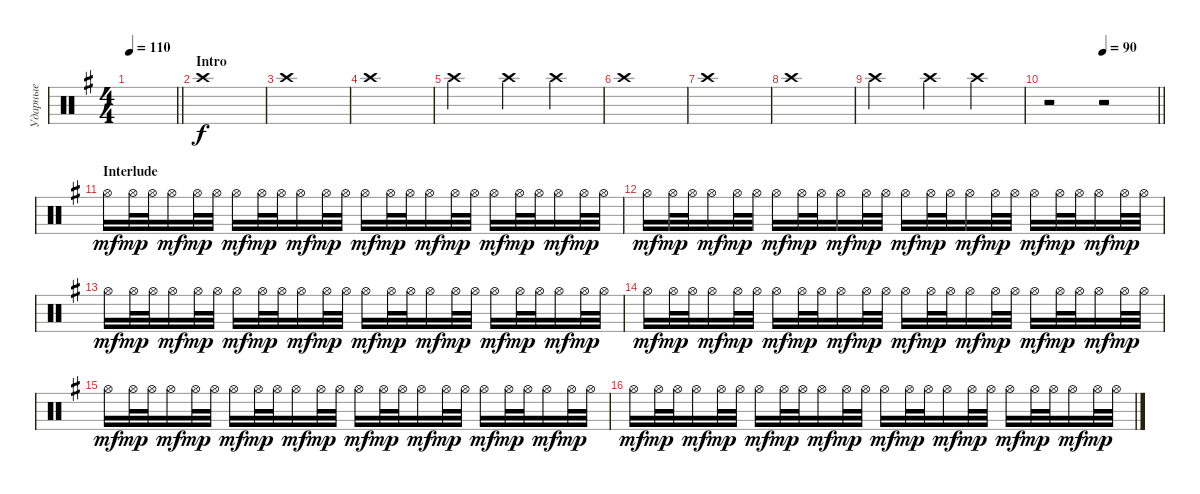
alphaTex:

\track ("Ударные" "Ударные") {instrument percussion}
\staff {score}
\articulation defaults
\ts (4 4)
\tempo 110
\tempo 60
\tempo 110
\clef neutral
\barLineRight lightlight
\ks eminor
|
\section ("" "Intro")
"Crash high (hit)".1 |
"Crash high (hit)".1 |
"Crash high (hit)".1 |
"Crash high (hit)".2 "Crash high (hit)".4 "Crash high (hit)".4 |
"Crash high (hit)".1 |
"Crash high (hit)".1 |
"Crash high (hit)".1 |
"Crash high (hit)".2 "Crash high (hit)".4 "Crash high (hit)".4 |
\tempo (90 0.5)
\barLineRight lightlight
r.2 r.2 |
\section ("" "Interlude")
"Hi-Hat (open)".16{dy mf} "Hi-Hat (open)".32{dy mp} "Hi-Hat (open)".32 "Hi-Hat (open)".16{dy mf} "Hi-Hat (open)".32{dy mp} "Hi-Hat (open)".32 "Hi-Hat (open)".16{dy mf} "Hi-Hat (open)".32{dy mp} "Hi-Hat (open)".32 "Hi-Hat (open)".16{dy mf} "Hi-Hat (open)".32{dy mp} "Hi-Hat (open)".32 "Hi-Hat (open)".16{dy mf} "Hi-Hat (open)".32{dy mp} "Hi-Hat (open)".32 "Hi-Hat (open)".16{dy mf} "Hi-Hat (open)".32{dy mp} "Hi-Hat (open)".32 "Hi-Hat (open)".16{dy mf} "Hi-Hat (open)".32{dy mp} "Hi-Hat (open)".32 "Hi-Hat (open)".16{dy mf} "Hi-Hat (open)".32{dy mp} "Hi-Hat (open)".32 |
"Hi-Hat (open)".16{dy mf} "Hi-Hat (open)".32{dy mp} "Hi-Hat (open)".32 "Hi-Hat (open)".16{dy mf} "Hi-Hat (open)".32{dy mp} "Hi-Hat (open)".32 "Hi-Hat (open)".16{dy mf} "Hi-Hat (open)".32{dy mp} "Hi-Hat (open)".32 "Hi-Hat (open)".16{dy mf} "Hi-Hat (open)".32{dy mp} "Hi-Hat (open)".32 "Hi-Hat (open)".16{dy mf} "Hi-Hat (open)".32{dy mp} "Hi-Hat (open)".32 "Hi-Hat (open)".16{dy mf} "Hi-Hat (open)".32{dy mp} "Hi-Hat (open)".32 "Hi-Hat (open)".16{dy mf} "Hi-Hat (open)".32{dy mp} "Hi-Hat (open)".32 "Hi-Hat (open)".16{dy mf} "Hi-Hat (open)".32{dy mp} "Hi-Hat (open)".32 |
"Hi-Hat (open)".16{dy mf} "Hi-Hat (open)".32{dy mp} "Hi-Hat (open)".32 "Hi-Hat (open)".16{dy mf} "Hi-Hat (open)".32{dy mp} "Hi-Hat (open)".32 "Hi-Hat (open)".16{dy mf} "Hi-Hat (open)".32{dy mp} "Hi-Hat (open)".32 "Hi-Hat (open)".16{dy mf} "Hi-Hat (open)".32{dy mp} "Hi-Hat (open)".32 "Hi-Hat (open)".16{dy mf} "Hi-Hat (open)".32{dy mp} "Hi-Hat (open)".32 "Hi-Hat (open)".16{dy mf} "Hi-Hat (open)".32{dy mp} "Hi-Hat (open)".32 "Hi-Hat (open)".16{dy mf} "Hi-Hat (open)".32{dy mp} "Hi-Hat (open)".32 "Hi-Hat (open)".16{dy mf} "Hi-Hat (open)".32{dy mp} "Hi-Hat (open)".32 |
"Hi-Hat (open)".16{dy mf} "Hi-Hat (open)".32{dy mp} "Hi-Hat (open)".32 "Hi-Hat (open)".16{dy mf} "Hi-Hat (open)".32{dy mp} "Hi-Hat (open)".32 "Hi-Hat (open)".16{dy mf} "Hi-Hat (open)".32{dy mp} "Hi-Hat (open)".32 "Hi-Hat (open)".16{dy mf} "Hi-Hat (open)".32{dy mp} "Hi-Hat (open)".32 "Hi-Hat (open)".16{dy mf} "Hi-Hat (open)".32{dy mp} "Hi-Hat (open)".32 "Hi-Hat (open)".16{dy mf} "Hi-Hat (open)".32{dy mp} "Hi-Hat (open)".32 "Hi-Hat (open)".16{dy mf} "Hi-Hat (open)".32{dy mp} "Hi-Hat (open)".32 "Hi-Hat (open)".16{dy mf} "Hi-Hat (open)".32{dy mp} "Hi-Hat (open)".32 |
"Hi-Hat (open)".16{dy mf} "Hi-Hat (open)".32{dy mp} "Hi-Hat (open)".32 "Hi-Hat (open)".16{dy mf} "Hi-Hat (open)".32{dy mp} "Hi-Hat (open)".32 "Hi-Hat (open)".16{dy mf} "Hi-Hat (open)".32{dy mp} "Hi-Hat (open)".32 "Hi-Hat (open)".16{dy mf} "Hi-Hat (open)".32{dy mp} "Hi-Hat (open)".32 "Hi-Hat (open)".16{dy mf} "Hi-Hat (open)".32{dy mp} "Hi-Hat (open)".32 "Hi-Hat (open)".16{dy mf} "Hi-Hat (open)".32{dy mp} "Hi-Hat (open)".32 "Hi-Hat (open)".16{dy mf} "Hi-Hat (open)".32{dy mp} "Hi-Hat (open)".32 "Hi-Hat (open)".16{dy mf} "Hi-Hat (open)".32{dy mp} "Hi-Hat (open)".32 |
"Hi-Hat (open)".16{dy mf} "Hi-Hat (open)".32{dy mp} "Hi-Hat (open)".32 "Hi-Hat (open)".16{dy mf} "Hi-Hat (open)".32{dy mp} "Hi-Hat (open)".32 "Hi-Hat (open)".16{dy mf} "Hi-Hat (open)".32{dy mp} "Hi-Hat (open)".32 "Hi-Hat (open)".16{dy mf} "Hi-Hat (open)".32{dy mp} "Hi-Hat (open)".32 "Hi-Hat (open)".16{dy mf} "Hi-Hat (open)".32{dy mp} "Hi-Hat (open)".32 "Hi-Hat (open)".16{dy mf} "Hi-Hat (open)".32{dy mp} "Hi-Hat (open)".32 "Hi-Hat (open)".16{dy mf} "Hi-Hat (open)".32{dy mp} "Hi-Hat (open)".32 "Hi-Hat (open)".16{dy mf} "Hi-Hat (open)".32{dy mp} "Hi-Hat (open)".32
